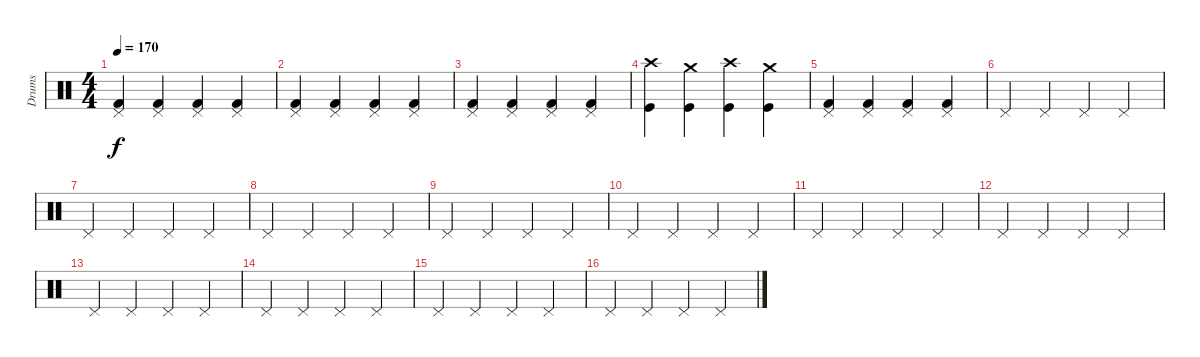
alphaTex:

\track ("Drums" "Drums") {instrument percussion}
\staff {score}
\articulation defaults
\ts (4 4)
\tempo 170
\clef neutral
\ks c
("Kick (hit) 2" "Pedal Hi-Hat (hit)").4{dy f} ("Kick (hit) 2" "Pedal Hi-Hat (hit)").4 ("Kick (hit) 2" "Pedal Hi-Hat (hit)").4 ("Kick (hit) 2" "Pedal Hi-Hat (hit)").4 |
("Kick (hit) 2" "Pedal Hi-Hat (hit)").4 ("Kick (hit) 2" "Pedal Hi-Hat (hit)").4 ("Kick (hit) 2" "Pedal Hi-Hat (hit)").4 ("Kick (hit) 2" "Pedal Hi-Hat (hit)").4 |
("Kick (hit) 2" "Pedal Hi-Hat (hit)").4 ("Kick (hit) 2" "Pedal Hi-Hat (hit)").4 ("Kick (hit) 2" "Pedal Hi-Hat (hit)").4 ("Kick (hit) 2" "Pedal Hi-Hat (hit)").4 |
("Crash high (hit)" "Kick (hit)").4 ("Crash medium (hit)" "Kick (hit)").4 ("Crash high (hit)" "Kick (hit)").4 ("Crash medium (hit)" "Kick (hit)").4 |
("Kick (hit) 2" "Pedal Hi-Hat (hit)").4 ("Kick (hit) 2" "Pedal Hi-Hat (hit)").4 ("Kick (hit) 2" "Pedal Hi-Hat (hit)").4 ("Kick (hit) 2" "Pedal Hi-Hat (hit)").4 |
"Pedal Hi-Hat (hit)".4 "Pedal Hi-Hat (hit)".4 "Pedal Hi-Hat (hit)".4 "Pedal Hi-Hat (hit)".4 |
"Pedal Hi-Hat (hit)".4 "Pedal Hi-Hat (hit)".4 "Pedal Hi-Hat (hit)".4 "Pedal Hi-Hat (hit)".4 |
"Pedal Hi-Hat (hit)".4 "Pedal Hi-Hat (hit)".4 "Pedal Hi-Hat (hit)".4 "Pedal Hi-Hat (hit)".4 |
"Pedal Hi-Hat (hit)".4 "Pedal Hi-Hat (hit)".4 "Pedal Hi-Hat (hit)".4 "Pedal Hi-Hat (hit)".4 |
"Pedal Hi-Hat (hit)".4 "Pedal Hi-Hat (hit)".4 "Pedal Hi-Hat (hit)".4 "Pedal Hi-Hat (hit)".4 |
"Pedal Hi-Hat (hit)".4 "Pedal Hi-Hat (hit)".4 "Pedal Hi-Hat (hit)".4 "Pedal Hi-Hat (hit)".4 |
"Pedal Hi-Hat (hit)".4 "Pedal Hi-Hat (hit)".4 "Pedal Hi-Hat (hit)".4 "Pedal Hi-Hat (hit)".4 |
"Pedal Hi-Hat (hit)".4 "Pedal Hi-Hat (hit)".4 "Pedal Hi-Hat (hit)".4 "Pedal Hi-Hat (hit)".4 |
"Pedal Hi-Hat (hit)".4 "Pedal Hi-Hat (hit)".4 "Pedal Hi-Hat (hit)".4 "Pedal Hi-Hat (hit)".4 |
"Pedal Hi-Hat (hit)".4 "Pedal Hi-Hat (hit)".4 "Pedal Hi-Hat (hit)".4 "Pedal Hi-Hat (hit)".4 |
"Pedal Hi-Hat (hit)".4 "Pedal Hi-Hat (hit)".4 "Pedal Hi-Hat (hit)".4 "Pedal Hi-Hat (hit)".4
